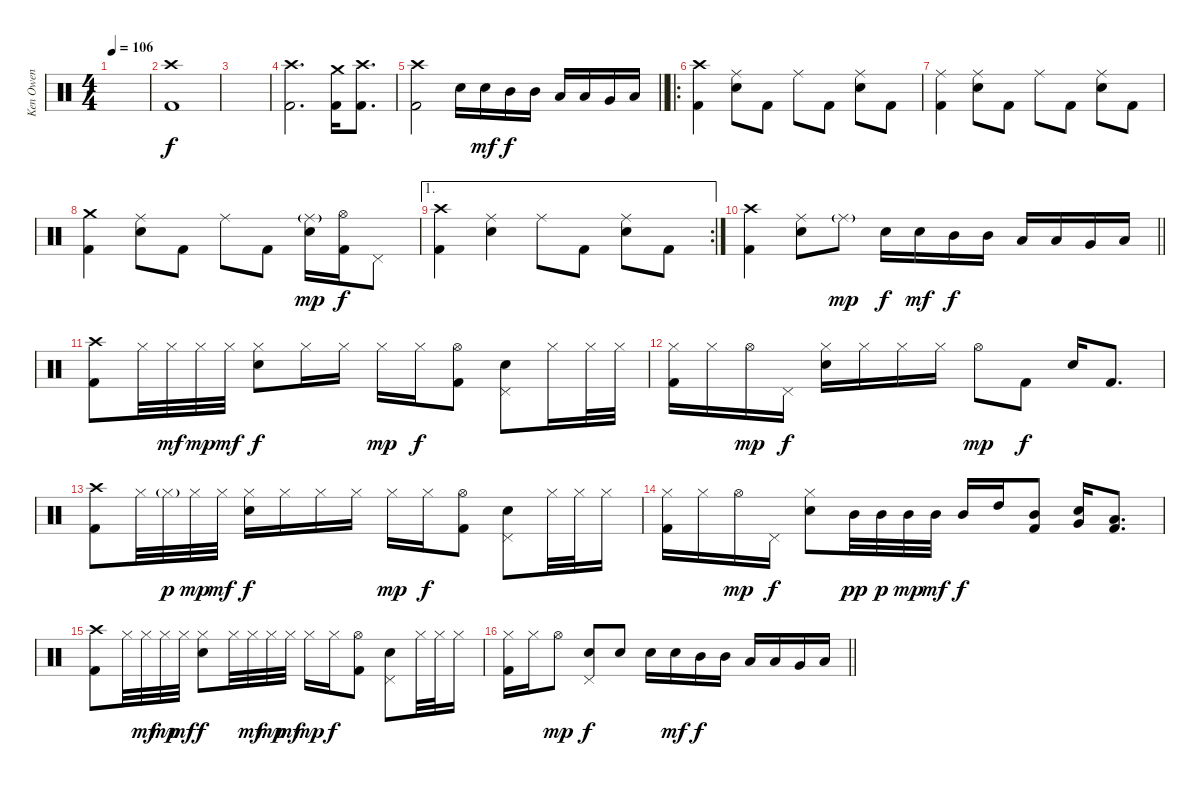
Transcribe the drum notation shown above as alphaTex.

\track ("Ken Owen" "Ken Owen") {instrument percussion}
\staff {score}
\articulation defaults
\ts (4 4)
\tempo 106
\clef neutral
\ks c
|
("Crash high (hit)" "Kick (hit) 2").1 |
|
("Crash high (hit)" "Kick (hit) 2").2{d} ("Crash medium (hit)" "Kick (hit) 2").16 ("Crash high (hit)" "Kick (hit) 2").8{d} |
\barLineRight lightlight
("Crash high (hit)" "Kick (hit) 2").2 "Electric Snare (hit)".16 "Electric Snare (hit)".16{dy mf} "Mid Tom (hit)".16{dy f} "Mid Tom (hit)".16 "Low Tom (hit)".16 "Low Tom (hit)".16 "Very Low Tom (hit)".16 "Low Floor Tom (hit)".16 |
\ro
\section ("" "")
("Crash high (hit)" "Kick (hit) 2").4 ("Ride (middle)" "Electric Snare (hit)").8 "Kick (hit) 2".8 "Ride (middle)".8 "Kick (hit) 2".8 ("Ride (middle)" "Electric Snare (hit)").8 "Kick (hit) 2".8 |
("Ride (middle)" "Kick (hit) 2").4 ("Ride (middle)" "Electric Snare (hit)").8 "Kick (hit) 2".8 "Ride (middle)".8 "Kick (hit) 2".8 ("Ride (middle)" "Electric Snare (hit)").8 "Kick (hit) 2".8 |
("Crash medium (hit)" "Kick (hit) 2").4 ("Ride (middle)" "Electric Snare (hit)").8 "Kick (hit) 2".8 "Ride (middle)".8 "Kick (hit) 2".8 ("Ride (middle)"{g} "Electric Snare (hit)").16{dy mp} ("Hi-Hat (open)" "Kick (hit) 2").16{dy f} "Pedal Hi-Hat (hit)".8 |
\ae 1
\rc 2
("Crash high (hit)" "Kick (hit) 2").4 ("Ride (middle)" "Electric Snare (hit)").4 "Ride (middle)".8 "Kick (hit) 2".8 ("Ride (middle)" "Electric Snare (hit)").8 "Kick (hit) 2".8 |
\barLineRight lightlight
("Crash high (hit)" "Kick (hit) 2").4 ("Ride (middle)" "Electric Snare (hit)").8 "Ride (middle)"{g}.8{dy mp} "Electric Snare (hit)".16{dy f} "Electric Snare (hit)".16{dy mf} "Mid Tom (hit)".16{dy f} "Mid Tom (hit)".16 "Low Tom (hit)".16 "Low Tom (hit)".16 "Very Low Tom (hit)".16 "Low Floor Tom (hit)".16 |
\section ("" "")
("Crash high (hit)" "Kick (hit) 2").8 "Hi-Hat (closed)".32 "Hi-Hat (closed)".32{dy mf} "Hi-Hat (closed)".32{dy mp} "Hi-Hat (closed)".32{dy mf} ("Hi-Hat (closed)" "Electric Snare (hit)").8{dy f} "Hi-Hat (closed)".16 "Hi-Hat (closed)".16 "Hi-Hat (closed)".16{dy mp} "Hi-Hat (closed)".16{dy f} ("Hi-Hat (open)" "Kick (hit) 2").8 ("Pedal Hi-Hat (hit)" "Electric Snare (hit)").8 "Hi-Hat (closed)".16 "Hi-Hat (closed)".32 "Hi-Hat (closed)".32 |
("Hi-Hat (closed)" "Kick (hit) 2").16 "Hi-Hat (closed)".16 "Hi-Hat (open)".16{dy mp} "Pedal Hi-Hat (hit)".16{dy f} ("Hi-Hat (closed)" "Electric Snare (hit)").16 "Hi-Hat (closed)".16 "Hi-Hat (closed)".16 "Hi-Hat (closed)".16 "Hi-Hat (open)".8{dy mp} "Kick (hit) 2".8{dy f} "Electric Snare (hit)".16 "Kick (hit) 2".8{d} |
("Crash high (hit)" "Kick (hit) 2").8 "Hi-Hat (closed)".32 "Hi-Hat (closed)"{g}.32{dy p} "Hi-Hat (closed)".32{dy mp} "Hi-Hat (closed)".32{dy mf} ("Hi-Hat (closed)" "Electric Snare (hit)").16{dy f} "Hi-Hat (closed)".16 "Hi-Hat (closed)".16 "Hi-Hat (closed)".16 "Hi-Hat (closed)".16{dy mp} "Hi-Hat (closed)".16{dy f} ("Hi-Hat (open)" "Kick (hit) 2").8 ("Pedal Hi-Hat (hit)" "Electric Snare (hit)").8 "Hi-Hat (closed)".32 "Hi-Hat (closed)".32 "Hi-Hat (closed)".16 |
("Hi-Hat (closed)" "Kick (hit) 2").16 "Hi-Hat (closed)".16 "Hi-Hat (open)".16{dy mp} "Pedal Hi-Hat (hit)".16{dy f} ("Hi-Hat (closed)" "Electric Snare (hit)").8 "Mid Tom (hit)".32{dy pp} "Mid Tom (hit)".32{dy p} "Mid Tom (hit)".32{dy mp} "Mid Tom (hit)".32{dy mf} "Mid Tom (hit)".16{dy f} "High Tom (hit)".16 ("Mid Tom (hit)" "Kick (hit) 2").8 ("Electric Snare (hit)" "Very Low Tom (hit)").16 ("Low Floor Tom (hit)" "Kick (hit) 2").8{d} |
("Crash high (hit)" "Kick (hit) 2").8 "Hi-Hat (closed)".32 "Hi-Hat (closed)".32{dy mf} "Hi-Hat (closed)".32{dy mp} "Hi-Hat (closed)".32{dy mf} ("Hi-Hat (closed)" "Electric Snare (hit)").8{dy f} "Hi-Hat (closed)".32 "Hi-Hat (closed)".32{dy mf} "Hi-Hat (closed)".32{dy mp} "Hi-Hat (closed)".32{dy mf} "Hi-Hat (closed)".16{dy mp} "Hi-Hat (closed)".16{dy f} ("Hi-Hat (open)" "Kick (hit) 2").8 ("Pedal Hi-Hat (hit)" "Electric Snare (hit)").8 "Hi-Hat (closed)".32 "Hi-Hat (closed)".32 "Hi-Hat (closed)".16 |
\barLineRight lightlight
("Hi-Hat (closed)" "Kick (hit) 2").16 "Hi-Hat (closed)".16 "Hi-Hat (open)".8{dy mp} ("Pedal Hi-Hat (hit)" "Electric Snare (hit)").8{dy f} "Electric Snare (hit)".8 "Electric Snare (hit)".16 "Electric Snare (hit)".16{dy mf} "Mid Tom (hit)".16{dy f} "Mid Tom (hit)".16 "Low Tom (hit)".16 "Low Tom (hit)".16 "Very Low Tom (hit)".16 "Low Floor Tom (hit)".16
